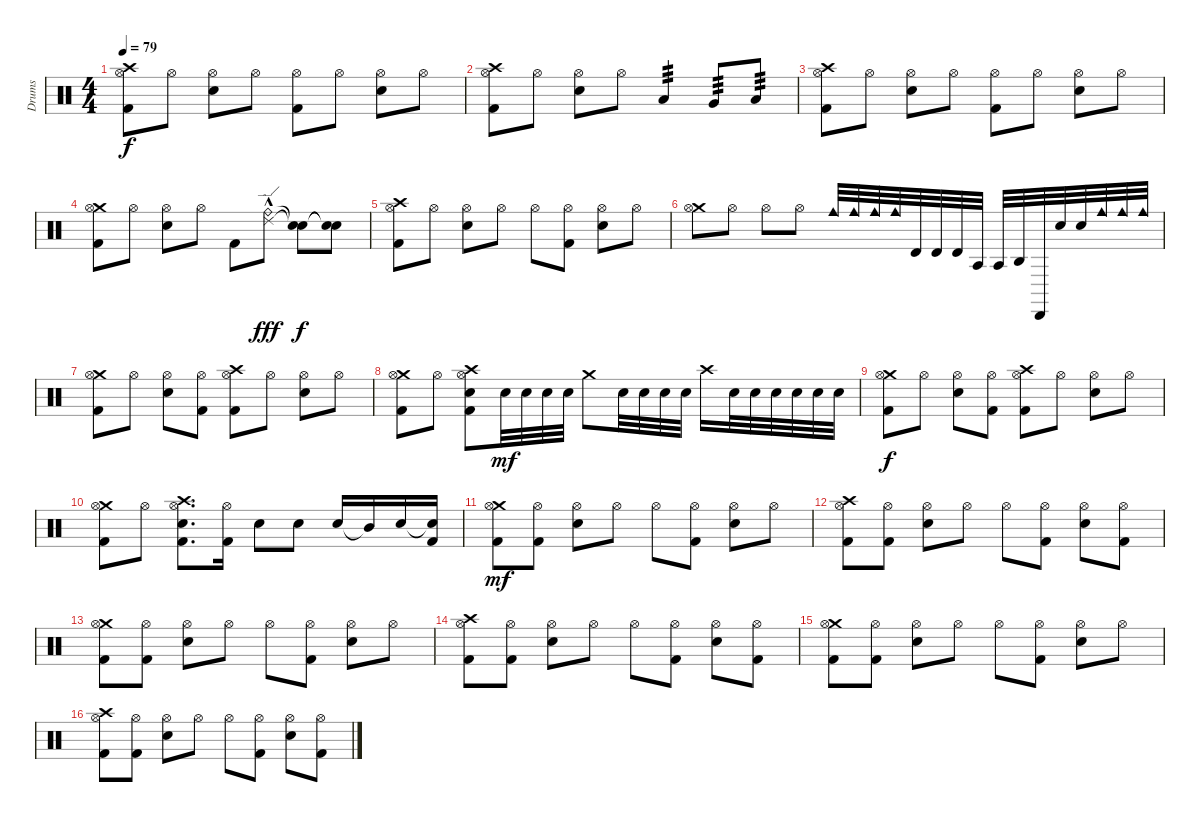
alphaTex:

\track ("Drums" "Drums") {instrument percussion}
\staff {score}
\articulation defaults
\ts (4 4)
\tempo 79
\clef neutral
\ks c
("Crash high (hit)" "Hi-Hat (open)" "Kick (hit) 2").8{dy f} "Hi-Hat (open)".8 ("Hi-Hat (open)" "Electric Snare (hit)").8 "Hi-Hat (open)".8 ("Hi-Hat (open)" "Kick (hit) 2").8 "Hi-Hat (open)".8 ("Hi-Hat (open)" "Electric Snare (hit)").8 "Hi-Hat (open)".8 |
("Crash high (hit)" "Hi-Hat (open)" "Kick (hit) 2").8 "Hi-Hat (open)".8 ("Hi-Hat (open)" "Electric Snare (hit)").8 "Hi-Hat (open)".8 "Low Tom (hit)".4{tp 3} "Very Low Tom (hit)".8{tp 3} "Low Floor Tom (hit)".8{tp 3} |
("Crash high (hit)" "Hi-Hat (open)" "Kick (hit) 2").8 "Hi-Hat (open)".8 ("Hi-Hat (open)" "Electric Snare (hit)").8 "Hi-Hat (open)".8 ("Hi-Hat (open)" "Kick (hit) 2").8 "Hi-Hat (open)".8 ("Hi-Hat (open)" "Electric Snare (hit)").8 "Hi-Hat (open)".8 |
("Crash medium (hit)" "Hi-Hat (open)" "Kick (hit) 2").8 "Hi-Hat (open)".8 ("Hi-Hat (open)" "Electric Snare (hit)").8 "Hi-Hat (open)".8 "Kick (hit) 2".8 ("Ride (bell)"{hac} "Ride (edge) 2").8{dy fff} ("Snare (hit)"{t} "Snare (hit)"{t}).8{dy f} ("Snare (hit)"{t} "Snare (hit)"{t}).8 |
("Crash high (hit)" "Hi-Hat (open)" "Kick (hit) 2").8 "Hi-Hat (open)".8 ("Hi-Hat (open)" "Electric Snare (hit)").8 "Hi-Hat (open)".8 "Hi-Hat (open)".8 ("Hi-Hat (open)" "Kick (hit) 2").8 ("Hi-Hat (open)" "Electric Snare (hit)").8 "Hi-Hat (open)".8 |
("Crash medium (hit)" "Hi-Hat (open)").8 "Hi-Hat (open)".8 "Hi-Hat (open)".8 "Hi-Hat (open)".8 "Cowbell medium (hit)".32 "Cowbell medium (hit)".32 "Cowbell medium (hit)".32 "Cowbell medium (hit)".32 "Timbale high (hit)".32 "Timbale high (hit)".32 "Timbale high (hit)".32 "Agogo tow (hit)".32 "Agogo tow (hit)".32 "Agogo high (hit)".32 "Cabasa (hit)".32 "Electric Snare (hit)".32 "Electric Snare (hit)".32 "Cowbell medium (hit)".32 "Cowbell medium (hit)".32 "Cowbell medium (hit)".32 |
("Crash medium (hit)" "Hi-Hat (open)" "Kick (hit) 2").8 "Hi-Hat (open)".8 ("Hi-Hat (open)" "Electric Snare (hit)").8 ("Hi-Hat (open)" "Kick (hit) 2").8 ("Crash high (hit)" "Hi-Hat (open)" "Kick (hit) 2").8 "Hi-Hat (open)".8 ("Hi-Hat (open)" "Electric Snare (hit)").8 "Hi-Hat (open)".8 |
("Crash medium (hit)" "Hi-Hat (open)" "Kick (hit) 2").8 "Hi-Hat (open)".8 ("Crash high (hit)" "Hi-Hat (open)" "Electric Snare (hit)" "Kick (hit) 2").8 "Electric Snare (hit)".32{dy mf} "Electric Snare (hit)".32 "Electric Snare (hit)".32 "Electric Snare (hit)".32 "Crash medium (hit)".8 "Electric Snare (hit)".32 "Electric Snare (hit)".32 "Electric Snare (hit)".32 "Electric Snare (hit)".32 "Crash high (hit)".16 "Electric Snare (hit)".32 "Electric Snare (hit)".32 "Electric Snare (hit)".32 "Electric Snare (hit)".32 "Electric Snare (hit)".32 "Electric Snare (hit)".32 |
("Crash medium (hit)" "Hi-Hat (open)" "Kick (hit) 2").8{dy f} "Hi-Hat (open)".8 ("Hi-Hat (open)" "Electric Snare (hit)").8 ("Hi-Hat (open)" "Kick (hit) 2").8 ("Crash high (hit)" "Hi-Hat (open)" "Kick (hit) 2").8 "Hi-Hat (open)".8 ("Hi-Hat (open)" "Electric Snare (hit)").8 "Hi-Hat (open)".8 |
("Crash medium (hit)" "Hi-Hat (open)" "Kick (hit) 2").8 "Hi-Hat (open)".8 ("Crash high (hit)" "Hi-Hat (open)" "Electric Snare (hit)" "Kick (hit) 2").8{d} ("Hi-Hat (open)" "Kick (hit) 2").16 "Electric Snare (hit)".8 "Electric Snare (hit)".8 "Electric Snare (hit)".16 "Mid Tom (hit)"{t}.16 "Electric Snare (hit)".16 ("Snare (hit)"{t} "Kick (hit) 2").16 |
("Crash medium (hit)" "Hi-Hat (open)" "Kick (hit) 2").8{dy mf} ("Hi-Hat (open)" "Kick (hit) 2").8 ("Hi-Hat (open)" "Electric Snare (hit)").8 "Hi-Hat (open)".8 "Hi-Hat (open)".8 ("Hi-Hat (open)" "Kick (hit) 2"{tr (36 16)}).8 ("Hi-Hat (open)" "Electric Snare (hit)").8 "Hi-Hat (open)".8 |
("Crash high (hit)" "Hi-Hat (open)" "Kick (hit) 2").8 ("Hi-Hat (open)" "Kick (hit) 2").8 ("Hi-Hat (open)" "Electric Snare (hit)").8 "Hi-Hat (open)".8 "Hi-Hat (open)".8 ("Hi-Hat (open)" "Kick (hit) 2"{tr (36 16)}).8 ("Hi-Hat (open)" "Electric Snare (hit)").8 ("Hi-Hat (open)" "Kick (hit) 2").8 |
("Crash medium (hit)" "Hi-Hat (open)" "Kick (hit) 2").8 ("Hi-Hat (open)" "Kick (hit) 2").8 ("Hi-Hat (open)" "Electric Snare (hit)").8 "Hi-Hat (open)".8 "Hi-Hat (open)".8 ("Hi-Hat (open)" "Kick (hit) 2"{tr (36 16)}).8 ("Hi-Hat (open)" "Electric Snare (hit)").8 "Hi-Hat (open)".8 |
("Crash high (hit)" "Hi-Hat (open)" "Kick (hit) 2").8 ("Hi-Hat (open)" "Kick (hit) 2").8 ("Hi-Hat (open)" "Electric Snare (hit)").8 "Hi-Hat (open)".8 "Hi-Hat (open)".8 ("Hi-Hat (open)" "Kick (hit) 2"{tr (36 16)}).8 ("Hi-Hat (open)" "Electric Snare (hit)").8 ("Hi-Hat (open)" "Kick (hit) 2").8 |
("Crash medium (hit)" "Hi-Hat (open)" "Kick (hit) 2").8 ("Hi-Hat (open)" "Kick (hit) 2").8 ("Hi-Hat (open)" "Electric Snare (hit)").8 "Hi-Hat (open)".8 "Hi-Hat (open)".8 ("Hi-Hat (open)" "Kick (hit) 2"{tr (36 16)}).8 ("Hi-Hat (open)" "Electric Snare (hit)").8 "Hi-Hat (open)".8 |
("Crash high (hit)" "Hi-Hat (open)" "Kick (hit) 2").8 ("Hi-Hat (open)" "Kick (hit) 2").8 ("Hi-Hat (open)" "Electric Snare (hit)").8 "Hi-Hat (open)".8 "Hi-Hat (open)".8 ("Hi-Hat (open)" "Kick (hit) 2"{tr (36 16)}).8 ("Hi-Hat (open)" "Electric Snare (hit)").8 ("Hi-Hat (open)" "Kick (hit) 2").8
